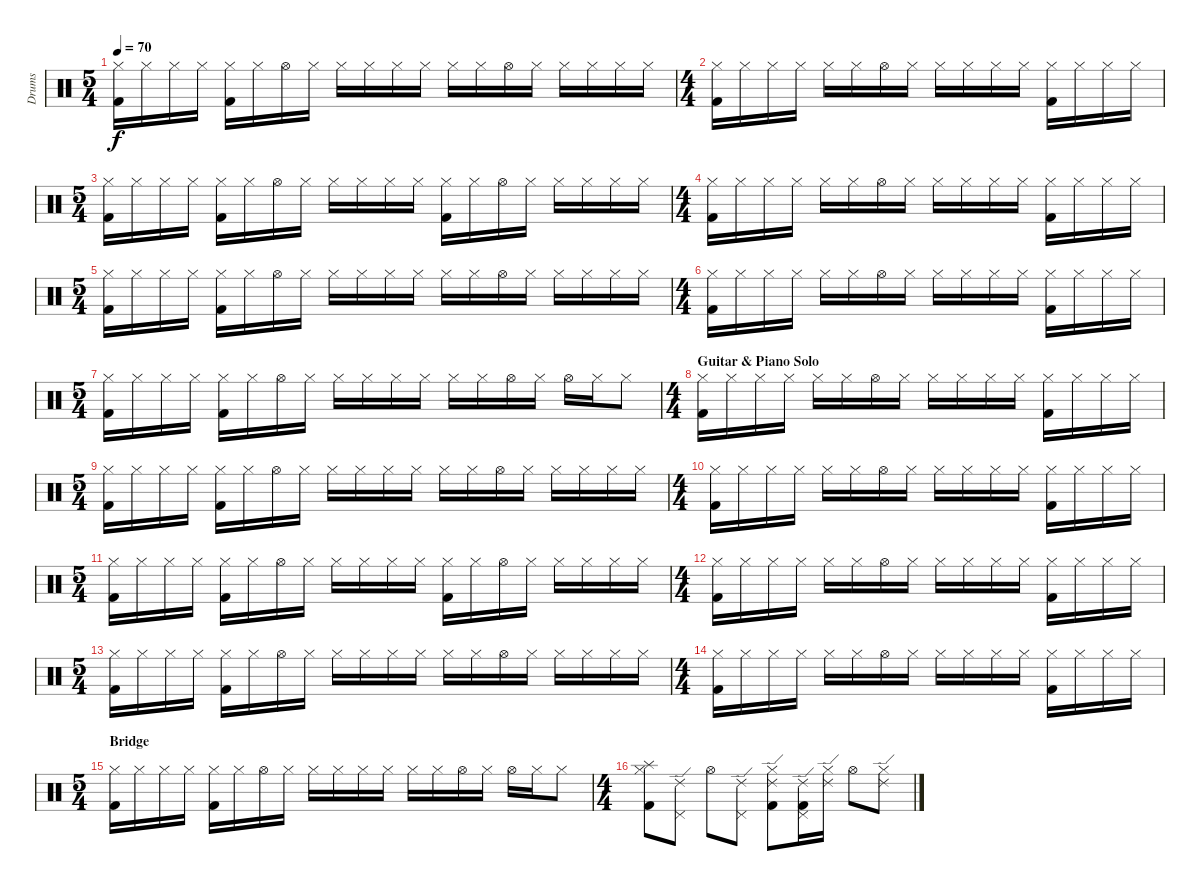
\track ("Drums" "Drums") {instrument percussion}
\staff {score}
\articulation defaults
\ts (5 4)
\tempo 70
\clef neutral
\ks c
("Hi-Hat (closed)" "Kick (hit) 2").16{dy f} "Hi-Hat (closed)".16 "Hi-Hat (closed)".16 "Hi-Hat (closed)".16 ("Hi-Hat (closed)" "Kick (hit) 2").16 "Hi-Hat (closed)".16 "Hi-Hat (open)".16 "Hi-Hat (closed)".16 "Hi-Hat (closed)".16 "Hi-Hat (closed)".16 "Hi-Hat (closed)".16 "Hi-Hat (closed)".16 "Hi-Hat (closed)".16 "Hi-Hat (closed)".16 "Hi-Hat (open)".16 "Hi-Hat (closed)".16 "Hi-Hat (closed)".16 "Hi-Hat (closed)".16 "Hi-Hat (closed)".16 "Hi-Hat (closed)".16 |
\ts (4 4)
("Hi-Hat (closed)" "Kick (hit) 2").16 "Hi-Hat (closed)".16 "Hi-Hat (closed)".16 "Hi-Hat (closed)".16 "Hi-Hat (closed)".16 "Hi-Hat (closed)".16 "Hi-Hat (open)".16 "Hi-Hat (closed)".16 "Hi-Hat (closed)".16 "Hi-Hat (closed)".16 "Hi-Hat (closed)".16 "Hi-Hat (closed)".16 ("Hi-Hat (closed)" "Kick (hit) 2").16 "Hi-Hat (closed)".16 "Hi-Hat (closed)".16 "Hi-Hat (closed)".16 |
\ts (5 4)
("Hi-Hat (closed)" "Kick (hit) 2").16 "Hi-Hat (closed)".16 "Hi-Hat (closed)".16 "Hi-Hat (closed)".16 ("Hi-Hat (closed)" "Kick (hit) 2").16 "Hi-Hat (closed)".16 "Hi-Hat (open)".16 "Hi-Hat (closed)".16 "Hi-Hat (closed)".16 "Hi-Hat (closed)".16 "Hi-Hat (closed)".16 "Hi-Hat (closed)".16 ("Hi-Hat (closed)" "Kick (hit) 2").16 "Hi-Hat (closed)".16 "Hi-Hat (open)".16 "Hi-Hat (closed)".16 "Hi-Hat (closed)".16 "Hi-Hat (closed)".16 "Hi-Hat (closed)".16 "Hi-Hat (closed)".16 |
\ts (4 4)
("Hi-Hat (closed)" "Kick (hit) 2").16 "Hi-Hat (closed)".16 "Hi-Hat (closed)".16 "Hi-Hat (closed)".16 "Hi-Hat (closed)".16 "Hi-Hat (closed)".16 "Hi-Hat (open)".16 "Hi-Hat (closed)".16 "Hi-Hat (closed)".16 "Hi-Hat (closed)".16 "Hi-Hat (closed)".16 "Hi-Hat (closed)".16 ("Hi-Hat (closed)" "Kick (hit) 2").16 "Hi-Hat (closed)".16 "Hi-Hat (closed)".16 "Hi-Hat (closed)".16 |
\ts (5 4)
("Hi-Hat (closed)" "Kick (hit) 2").16 "Hi-Hat (closed)".16 "Hi-Hat (closed)".16 "Hi-Hat (closed)".16 ("Hi-Hat (closed)" "Kick (hit) 2").16 "Hi-Hat (closed)".16 "Hi-Hat (open)".16 "Hi-Hat (closed)".16 "Hi-Hat (closed)".16 "Hi-Hat (closed)".16 "Hi-Hat (closed)".16 "Hi-Hat (closed)".16 "Hi-Hat (closed)".16 "Hi-Hat (closed)".16 "Hi-Hat (open)".16 "Hi-Hat (closed)".16 "Hi-Hat (closed)".16 "Hi-Hat (closed)".16 "Hi-Hat (closed)".16 "Hi-Hat (closed)".16 |
\ts (4 4)
("Hi-Hat (closed)" "Kick (hit) 2").16 "Hi-Hat (closed)".16 "Hi-Hat (closed)".16 "Hi-Hat (closed)".16 "Hi-Hat (closed)".16 "Hi-Hat (closed)".16 "Hi-Hat (open)".16 "Hi-Hat (closed)".16 "Hi-Hat (closed)".16 "Hi-Hat (closed)".16 "Hi-Hat (closed)".16 "Hi-Hat (closed)".16 ("Hi-Hat (closed)" "Kick (hit) 2").16 "Hi-Hat (closed)".16 "Hi-Hat (closed)".16 "Hi-Hat (closed)".16 |
\ts (5 4)
("Hi-Hat (closed)" "Kick (hit) 2").16 "Hi-Hat (closed)".16 "Hi-Hat (closed)".16 "Hi-Hat (closed)".16 ("Hi-Hat (closed)" "Kick (hit) 2").16 "Hi-Hat (closed)".16 "Hi-Hat (open)".16 "Hi-Hat (closed)".16 "Hi-Hat (closed)".16 "Hi-Hat (closed)".16 "Hi-Hat (closed)".16 "Hi-Hat (closed)".16 "Hi-Hat (closed)".16 "Hi-Hat (closed)".16 "Hi-Hat (open)".16 "Hi-Hat (closed)".16 "Hi-Hat (open)".16 "Hi-Hat (closed)".16 "Hi-Hat (closed)".8 |
\ts (4 4)
\section ("" "Guitar & Piano Solo")
("Hi-Hat (closed)" "Kick (hit) 2").16 "Hi-Hat (closed)".16 "Hi-Hat (closed)".16 "Hi-Hat (closed)".16 "Hi-Hat (closed)".16 "Hi-Hat (closed)".16 "Hi-Hat (open)".16 "Hi-Hat (closed)".16 "Hi-Hat (closed)".16 "Hi-Hat (closed)".16 "Hi-Hat (closed)".16 "Hi-Hat (closed)".16 ("Hi-Hat (closed)" "Kick (hit) 2").16 "Hi-Hat (closed)".16 "Hi-Hat (closed)".16 "Hi-Hat (closed)".16 |
\ts (5 4)
("Hi-Hat (closed)" "Kick (hit) 2").16 "Hi-Hat (closed)".16 "Hi-Hat (closed)".16 "Hi-Hat (closed)".16 ("Hi-Hat (closed)" "Kick (hit) 2").16 "Hi-Hat (closed)".16 "Hi-Hat (open)".16 "Hi-Hat (closed)".16 "Hi-Hat (closed)".16 "Hi-Hat (closed)".16 "Hi-Hat (closed)".16 "Hi-Hat (closed)".16 "Hi-Hat (closed)".16 "Hi-Hat (closed)".16 "Hi-Hat (open)".16 "Hi-Hat (closed)".16 "Hi-Hat (closed)".16 "Hi-Hat (closed)".16 "Hi-Hat (closed)".16 "Hi-Hat (closed)".16 |
\ts (4 4)
("Hi-Hat (closed)" "Kick (hit) 2").16 "Hi-Hat (closed)".16 "Hi-Hat (closed)".16 "Hi-Hat (closed)".16 "Hi-Hat (closed)".16 "Hi-Hat (closed)".16 "Hi-Hat (open)".16 "Hi-Hat (closed)".16 "Hi-Hat (closed)".16 "Hi-Hat (closed)".16 "Hi-Hat (closed)".16 "Hi-Hat (closed)".16 ("Hi-Hat (closed)" "Kick (hit) 2").16 "Hi-Hat (closed)".16 "Hi-Hat (closed)".16 "Hi-Hat (closed)".16 |
\ts (5 4)
("Hi-Hat (closed)" "Kick (hit) 2").16 "Hi-Hat (closed)".16 "Hi-Hat (closed)".16 "Hi-Hat (closed)".16 ("Hi-Hat (closed)" "Kick (hit) 2").16 "Hi-Hat (closed)".16 "Hi-Hat (open)".16 "Hi-Hat (closed)".16 "Hi-Hat (closed)".16 "Hi-Hat (closed)".16 "Hi-Hat (closed)".16 "Hi-Hat (closed)".16 ("Hi-Hat (closed)" "Kick (hit) 2").16 "Hi-Hat (closed)".16 "Hi-Hat (open)".16 "Hi-Hat (closed)".16 "Hi-Hat (closed)".16 "Hi-Hat (closed)".16 "Hi-Hat (closed)".16 "Hi-Hat (closed)".16 |
\ts (4 4)
("Hi-Hat (closed)" "Kick (hit) 2").16 "Hi-Hat (closed)".16 "Hi-Hat (closed)".16 "Hi-Hat (closed)".16 "Hi-Hat (closed)".16 "Hi-Hat (closed)".16 "Hi-Hat (open)".16 "Hi-Hat (closed)".16 "Hi-Hat (closed)".16 "Hi-Hat (closed)".16 "Hi-Hat (closed)".16 "Hi-Hat (closed)".16 ("Hi-Hat (closed)" "Kick (hit) 2").16 "Hi-Hat (closed)".16 "Hi-Hat (closed)".16 "Hi-Hat (closed)".16 |
\ts (5 4)
("Hi-Hat (closed)" "Kick (hit) 2").16 "Hi-Hat (closed)".16 "Hi-Hat (closed)".16 "Hi-Hat (closed)".16 ("Hi-Hat (closed)" "Kick (hit) 2").16 "Hi-Hat (closed)".16 "Hi-Hat (open)".16 "Hi-Hat (closed)".16 "Hi-Hat (closed)".16 "Hi-Hat (closed)".16 "Hi-Hat (closed)".16 "Hi-Hat (closed)".16 "Hi-Hat (closed)".16 "Hi-Hat (closed)".16 "Hi-Hat (open)".16 "Hi-Hat (closed)".16 "Hi-Hat (closed)".16 "Hi-Hat (closed)".16 "Hi-Hat (closed)".16 "Hi-Hat (closed)".16 |
\ts (4 4)
("Hi-Hat (closed)" "Kick (hit) 2").16 "Hi-Hat (closed)".16 "Hi-Hat (closed)".16 "Hi-Hat (closed)".16 "Hi-Hat (closed)".16 "Hi-Hat (closed)".16 "Hi-Hat (open)".16 "Hi-Hat (closed)".16 "Hi-Hat (closed)".16 "Hi-Hat (closed)".16 "Hi-Hat (closed)".16 "Hi-Hat (closed)".16 ("Hi-Hat (closed)" "Kick (hit) 2").16 "Hi-Hat (closed)".16 "Hi-Hat (closed)".16 "Hi-Hat (closed)".16 |
\ts (5 4)
\section ("" "Bridge")
("Hi-Hat (closed)" "Kick (hit) 2").16 "Hi-Hat (closed)".16 "Hi-Hat (closed)".16 "Hi-Hat (closed)".16 ("Hi-Hat (closed)" "Kick (hit) 2").16 "Hi-Hat (closed)".16 "Hi-Hat (open)".16 "Hi-Hat (closed)".16 "Hi-Hat (closed)".16 "Hi-Hat (closed)".16 "Hi-Hat (closed)".16 "Hi-Hat (closed)".16 "Hi-Hat (closed)".16 "Hi-Hat (closed)".16 "Hi-Hat (open)".16 "Hi-Hat (closed)".16 "Hi-Hat (open)".16 "Hi-Hat (closed)".16 "Hi-Hat (closed)".8 |
\ts (4 4)
("Splash (hit)" "Hi-Hat (closed)" "Kick (hit) 2").8 ("Ride (edge) 2" "Pedal Hi-Hat (hit)").8 "Hi-Hat (open)".8 ("Ride (edge) 2" "Pedal Hi-Hat (hit)").8 ("Ride (edge) 2" "Hi-Hat (closed)" "Kick (hit) 2").8 ("Ride (edge) 2" "Pedal Hi-Hat (hit)" "Kick (hit) 2").16 ("Ride (edge) 2" "Hi-Hat (closed)").16 "Hi-Hat (open)".8 ("Ride (edge) 2" "Hi-Hat (closed)").8
